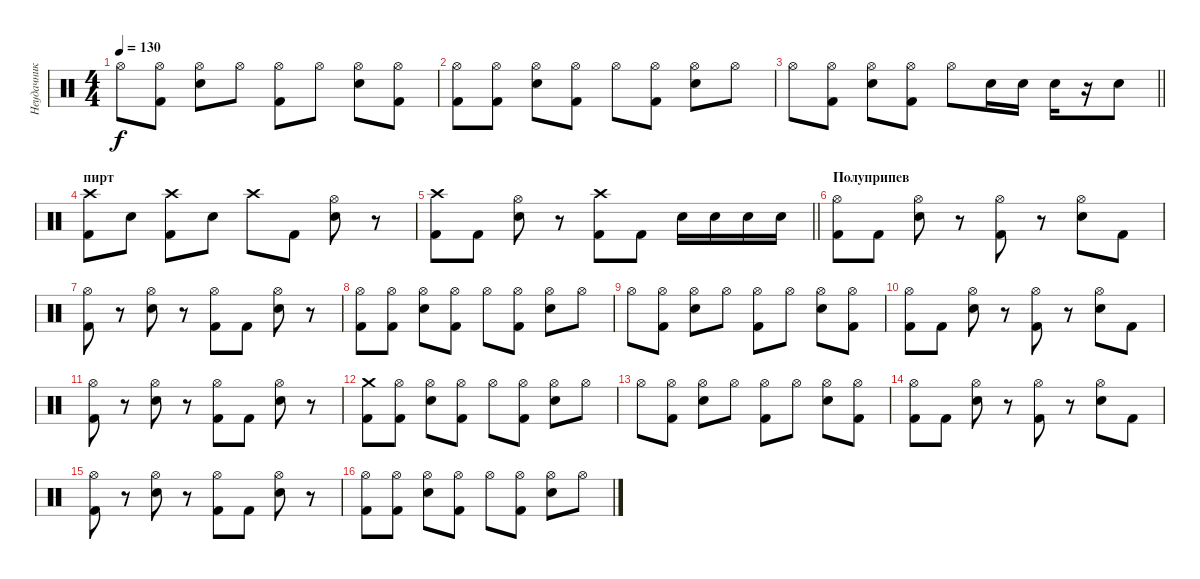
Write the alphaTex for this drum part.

\track ("Неудачник" "Неудачник") {instrument percussion}
\staff {score}
\articulation defaults
\ts (4 4)
\tempo 130
\clef neutral
\ks c "Hi-Hat (open)".8{dy f}
("Hi-Hat (open)" "Kick (hit) 2").8 ("Hi-Hat (open)" "Electric Snare (hit)").8 "Hi-Hat (open)".8 ("Hi-Hat (open)" "Kick (hit) 2").8 "Hi-Hat (open)".8 ("Hi-Hat (open)" "Electric Snare (hit)").8 ("Hi-Hat (open)" "Kick (hit) 2").8 |
("Hi-Hat (open)" "Kick (hit) 2").8 ("Hi-Hat (open)" "Kick (hit) 2").8 ("Hi-Hat (open)" "Electric Snare (hit)").8 ("Hi-Hat (open)" "Kick (hit) 2").8 "Hi-Hat (open)".8 ("Hi-Hat (open)" "Kick (hit) 2").8 ("Hi-Hat (open)" "Electric Snare (hit)").8 "Hi-Hat (open)".8 |
\barLineRight lightlight "Hi-Hat (open)".8
("Hi-Hat (open)" "Kick (hit) 2").8 ("Hi-Hat (open)" "Electric Snare (hit)").8 ("Hi-Hat (open)" "Kick (hit) 2").8 "Hi-Hat (open)".8 "Electric Snare (hit)".16 "Electric Snare (hit)".16 "Electric Snare (hit)".16 r.16 "Electric Snare (hit)".8 |
\section ("" "пирт")
("Crash high (hit)" "Kick (hit) 2").8 "Electric Snare (hit)".8 ("Crash high (hit)" "Kick (hit) 2").8 "Electric Snare (hit)".8 "Crash high (hit)".8 "Kick (hit) 2".8 ("Hi-Hat (open)" "Electric Snare (hit)").8 r.8 |
\barLineRight lightlight
("Crash high (hit)" "Kick (hit) 2").8 "Kick (hit) 2".8 ("Hi-Hat (open)" "Electric Snare (hit)").8 r.8 ("Crash high (hit)" "Kick (hit) 2").8 "Kick (hit) 2".8 "Electric Snare (hit)".16 "Electric Snare (hit)".16 "Electric Snare (hit)".16 "Electric Snare (hit)".16 |
\section ("" "Полуприпев")
("Hi-Hat (open)" "Kick (hit) 2").8 "Kick (hit) 2".8 ("Hi-Hat (open)" "Electric Snare (hit)").8 r.8 ("Hi-Hat (open)" "Kick (hit) 2").8 r.8 ("Hi-Hat (open)" "Electric Snare (hit)").8 "Kick (hit) 2".8 |
("Hi-Hat (open)" "Kick (hit) 2").8 r.8 ("Hi-Hat (open)" "Electric Snare (hit)").8 r.8 ("Hi-Hat (open)" "Kick (hit) 2").8 "Kick (hit) 2".8 ("Hi-Hat (open)" "Electric Snare (hit)").8 r.8 |
("Hi-Hat (open)" "Kick (hit) 2").8 ("Hi-Hat (open)" "Kick (hit) 2").8 ("Hi-Hat (open)" "Electric Snare (hit)").8 ("Hi-Hat (open)" "Kick (hit) 2").8 "Hi-Hat (open)".8 ("Hi-Hat (open)" "Kick (hit) 2").8 ("Hi-Hat (open)" "Electric Snare (hit)").8 "Hi-Hat (open)".8 |
"Hi-Hat (open)".8 ("Hi-Hat (open)" "Kick (hit) 2").8 ("Hi-Hat (open)" "Electric Snare (hit)").8 "Hi-Hat (open)".8 ("Hi-Hat (open)" "Kick (hit) 2").8 "Hi-Hat (open)".8 ("Hi-Hat (open)" "Electric Snare (hit)").8 ("Hi-Hat (open)" "Kick (hit) 2").8 |
("Hi-Hat (open)" "Kick (hit) 2").8 "Kick (hit) 2".8 ("Hi-Hat (open)" "Electric Snare (hit)").8 r.8 ("Hi-Hat (open)" "Kick (hit) 2").8 r.8 ("Hi-Hat (open)" "Electric Snare (hit)").8 "Kick (hit) 2".8 |
("Hi-Hat (open)" "Kick (hit) 2").8 r.8 ("Hi-Hat (open)" "Electric Snare (hit)").8 r.8 ("Hi-Hat (open)" "Kick (hit) 2").8 "Kick (hit) 2".8 ("Hi-Hat (open)" "Electric Snare (hit)").8 r.8 |
("Crash medium (hit)" "Kick (hit) 2").8 ("Hi-Hat (open)" "Kick (hit) 2").8 ("Hi-Hat (open)" "Electric Snare (hit)").8 ("Hi-Hat (open)" "Kick (hit) 2").8 "Hi-Hat (open)".8 ("Hi-Hat (open)" "Kick (hit) 2").8 ("Hi-Hat (open)" "Electric Snare (hit)").8 "Hi-Hat (open)".8 |
"Hi-Hat (open)".8 ("Hi-Hat (open)" "Kick (hit) 2").8 ("Hi-Hat (open)" "Electric Snare (hit)").8 "Hi-Hat (open)".8 ("Hi-Hat (open)" "Kick (hit) 2").8 "Hi-Hat (open)".8 ("Hi-Hat (open)" "Electric Snare (hit)").8 ("Hi-Hat (open)" "Kick (hit) 2").8 |
("Hi-Hat (open)" "Kick (hit) 2").8 "Kick (hit) 2".8 ("Hi-Hat (open)" "Electric Snare (hit)").8 r.8 ("Hi-Hat (open)" "Kick (hit) 2").8 r.8 ("Hi-Hat (open)" "Electric Snare (hit)").8 "Kick (hit) 2".8 |
("Hi-Hat (open)" "Kick (hit) 2").8 r.8 ("Hi-Hat (open)" "Electric Snare (hit)").8 r.8 ("Hi-Hat (open)" "Kick (hit) 2").8 "Kick (hit) 2".8 ("Hi-Hat (open)" "Electric Snare (hit)").8 r.8 |
("Hi-Hat (open)" "Kick (hit) 2").8 ("Hi-Hat (open)" "Kick (hit) 2").8 ("Hi-Hat (open)" "Electric Snare (hit)").8 ("Hi-Hat (open)" "Kick (hit) 2").8 "Hi-Hat (open)".8 ("Hi-Hat (open)" "Kick (hit) 2").8 ("Hi-Hat (open)" "Electric Snare (hit)").8 "Hi-Hat (open)".8
